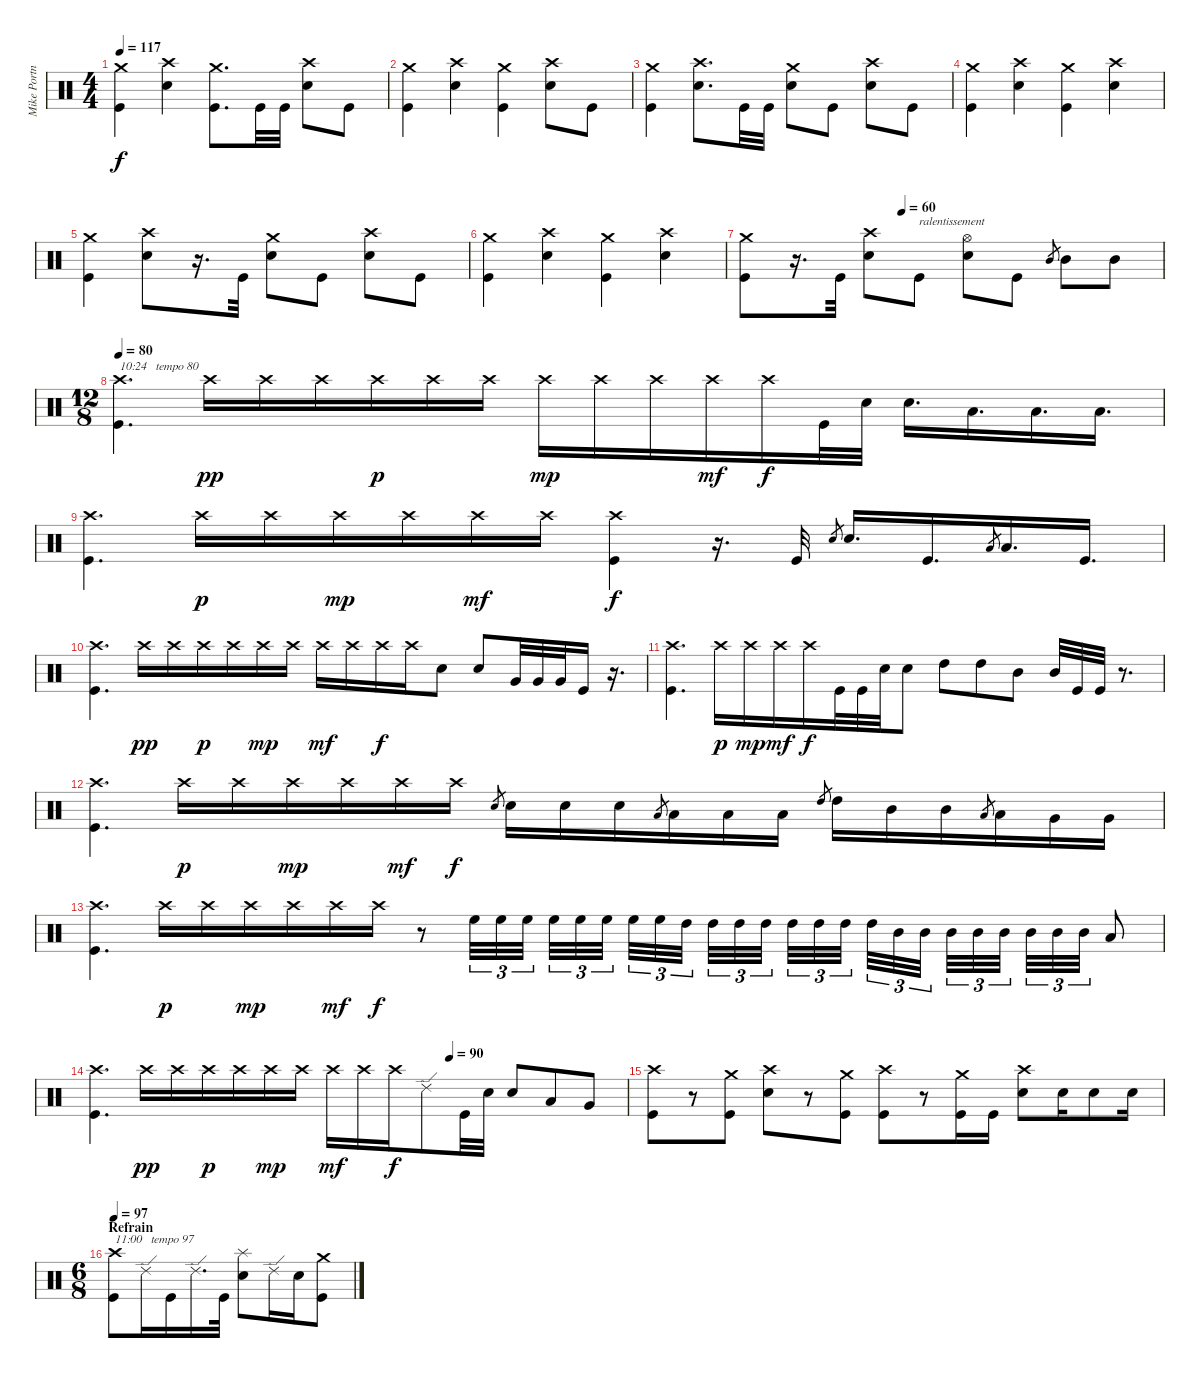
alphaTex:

\track ("Mike Portnoy" "Mike Portn") {instrument percussion}
\staff {score}
\articulation defaults
\ts (4 4)
\tempo 117
\clef neutral
\ks c
("Crash medium (hit)" "Kick (hit)").4{dy f} ("Crash high (hit)" "Snare (hit) 2").4 ("Crash medium (hit)" "Kick (hit)").8{d} "Kick (hit)".32 "Kick (hit)".32 ("Crash high (hit)" "Snare (hit) 2").8 "Kick (hit)".8 |
("Crash medium (hit)" "Kick (hit)").4 ("Crash high (hit)" "Snare (hit) 2").4 ("Crash medium (hit)" "Kick (hit)").4 ("Crash high (hit)" "Snare (hit) 2").8 "Kick (hit)".8 |
("Crash medium (hit)" "Kick (hit)").4 ("Crash high (hit)" "Snare (hit) 2").8{d} "Kick (hit)".32 "Kick (hit)".32 ("Crash medium (hit)" "Snare (hit) 2").8 "Kick (hit)".8 ("Crash high (hit)" "Snare (hit) 2").8 "Kick (hit)".8 |
("Crash medium (hit)" "Kick (hit)").4 ("Crash high (hit)" "Snare (hit) 2").4 ("Crash medium (hit)" "Kick (hit)").4 ("Crash high (hit)" "Snare (hit) 2").4 |
("Crash medium (hit)" "Kick (hit)").4 ("Crash high (hit)" "Snare (hit) 2").8 r.16{d} "Kick (hit)".32 ("Crash medium (hit)" "Snare (hit) 2").8 "Kick (hit)".8 ("Crash high (hit)" "Snare (hit) 2").8 "Kick (hit)".8 |
("Crash medium (hit)" "Kick (hit)").4 ("Crash high (hit)" "Snare (hit) 2").4 ("Crash medium (hit)" "Kick (hit)").4 ("Crash high (hit)" "Snare (hit) 2").4 |
\tempo (60 0.375)
("Crash medium (hit)" "Kick (hit)").8 r.16{d} "Kick (hit)".32 ("Crash high (hit)" "Snare (hit) 2").8 "Kick (hit)".8{txt "ralentissement"} ("Hi-Hat (open)" "Snare (hit) 2").8 "Kick (hit)".8 "Mid Tom (hit)".8{gr} "Mid Tom (hit)".8 "Mid Tom (hit)".8 |
\ts (12 8)
\section ("" "")
\tempo 80
("Crash high (hit)" "Kick (hit)").4{d txt "10:24   tempo 80"} "Crash high (hit)".16{dy pp} "Crash high (hit)".16 "Crash high (hit)".16 "Crash high (hit)".16{dy p} "Crash high (hit)".16 "Crash high (hit)".16 "Crash high (hit)".16{dy mp} "Crash high (hit)".16 "Crash high (hit)".16 "Crash high (hit)".16{dy mf} "Crash high (hit)".16{dy f} "Kick (hit)".32 "Snare (hit) 2".32 "Snare (hit) 2".16{d} "Low Tom (hit)".16{d} "Low Tom (hit)".16{d} "Low Tom (hit)".16{d} |
("Crash high (hit)" "Kick (hit)").4{d} "Crash high (hit)".16{dy p} "Crash high (hit)".16 "Crash high (hit)".16{dy mp} "Crash high (hit)".16 "Crash high (hit)".16{dy mf} "Crash high (hit)".16 ("Crash high (hit)" "Kick (hit)").4{dy f} r.16{d} "Kick (hit)".32 "Snare (hit) 2".8{gr} "Snare (hit) 2".16{d} "Kick (hit)".16{d} "Low Tom (hit)".8{gr} "Low Tom (hit)".16{d} "Kick (hit)".16{d} |
("Crash high (hit)" "Kick (hit)").4{d} "Crash high (hit)".16{dy pp} "Crash high (hit)".16 "Crash high (hit)".16{dy p} "Crash high (hit)".16 "Crash high (hit)".16{dy mp} "Crash high (hit)".16 "Crash high (hit)".16{dy mf} "Crash high (hit)".16 "Crash high (hit)".16{dy f} "Crash high (hit)".16 "Snare (hit) 2".8 "Snare (hit) 2".8 "Very Low Tom (hit)".32 "Very Low Tom (hit)".32 "Very Low Tom (hit)".32 "Kick (hit)".16 r.16{d} |
("Crash high (hit)" "Kick (hit)").4{d} "Crash high (hit)".16{dy p} "Crash high (hit)".16{dy mp} "Crash high (hit)".16{dy mf} "Crash high (hit)".16{dy f} "Kick (hit)".32 "Kick (hit)".32 "Snare (hit) 2".32 "Snare (hit) 2".8 "High Tom (hit)".8 "High Tom (hit)".8 "Mid Tom (hit)".8 "Mid Tom (hit)".32 "Kick (hit)".32 "Kick (hit)".32 r.8{d} |
("Crash high (hit)" "Kick (hit)").4{d} "Crash high (hit)".16{dy p} "Crash high (hit)".16 "Crash high (hit)".16{dy mp} "Crash high (hit)".16 "Crash high (hit)".16{dy mf} "Crash high (hit)".16{dy f} "Snare (hit) 2".8{gr} "Snare (hit) 2".16 "Snare (hit) 2".16 "Snare (hit) 2".16 "Low Tom (hit)".8{gr} "Low Tom (hit)".16 "Low Tom (hit)".16 "Low Tom (hit)".16 "High Tom (hit)".8{gr} "High Tom (hit)".16 "Mid Tom (hit)".16 "Mid Tom (hit)".16 "Low Tom (hit)".8{gr} "Low Tom (hit)".16 "Very Low Tom (hit)".16 "Very Low Tom (hit)".16 |
("Crash high (hit)" "Kick (hit)").4{d} "Crash high (hit)".16{dy p} "Crash high (hit)".16 "Crash high (hit)".16{dy mp} "Crash high (hit)".16 "Crash high (hit)".16{dy mf} "Crash high (hit)".16{dy f} r.8 "High Floor Tom (hit)".32{tu (3 2)} "High Floor Tom (hit)".32{tu (3 2)} "High Floor Tom (hit)".32{tu (3 2)} "High Floor Tom (hit)".32{tu (3 2)} "High Floor Tom (hit)".32{tu (3 2)} "High Floor Tom (hit)".32{tu (3 2)} "High Floor Tom (hit)".32{tu (3 2)} "High Floor Tom (hit)".32{tu (3 2)} "High Tom (hit)".32{tu (3 2)} "High Tom (hit)".32{tu (3 2)} "High Tom (hit)".32{tu (3 2)} "High Tom (hit)".32{tu (3 2)} "High Tom (hit)".32{tu (3 2)} "High Tom (hit)".32{tu (3 2)} "High Tom (hit)".32{tu (3 2)} "High Tom (hit)".32{tu (3 2)} "Mid Tom (hit)".32{tu (3 2)} "Mid Tom (hit)".32{tu (3 2)} "Mid Tom (hit)".32{tu (3 2)} "Mid Tom (hit)".32{tu (3 2)} "Mid Tom (hit)".32{tu (3 2)} "Mid Tom (hit)".32{tu (3 2)} "Mid Tom (hit)".32{tu (3 2)} "Mid Tom (hit)".32{tu (3 2)} "Low Tom (hit)".8 |
\tempo (90 0.6666666666666666)
("Crash high (hit)" "Kick (hit)").4{d} "Crash high (hit)".16{dy pp} "Crash high (hit)".16 "Crash high (hit)".16{dy p} "Crash high (hit)".16 "Crash high (hit)".16{dy mp} "Crash high (hit)".16 "Crash high (hit)".16{dy mf} "Crash high (hit)".16 "Crash high (hit)".16{dy f} "Ride (edge) 2".8 "Kick (hit)".32 "Snare (hit) 2".32 "Snare (hit) 2".8 "Low Tom (hit)".8 "Very Low Tom (hit)".8 |
("Crash high (hit)" "Kick (hit)").8 r.8 ("Crash medium (hit)" "Kick (hit)").8 ("Crash high (hit)" "Snare (hit) 2").8 r.8 ("Crash medium (hit)" "Kick (hit)").8 ("Crash high (hit)" "Kick (hit)").8 r.8 ("Crash medium (hit)" "Kick (hit)").16 "Kick (hit)".16 ("Crash high (hit)" "Snare (hit) 2").8 "Snare (hit) 2".16 "Snare (hit) 2".8 "Snare (hit) 2".16 |
\ts (6 8)
\section ("" "Refrain")
\tempo 97
("Crash high (hit)" "Kick (hit)").8{txt "11:00   tempo 97"} "Ride (edge) 2".16 "Kick (hit)".16 "Ride (edge) 2".16{d} "Kick (hit)".32 ("Splash (hit)" "Snare (hit) 2").8 "Ride (edge) 2".16 "Snare (hit) 2".16 ("Crash medium (hit)" "Kick (hit)").8
